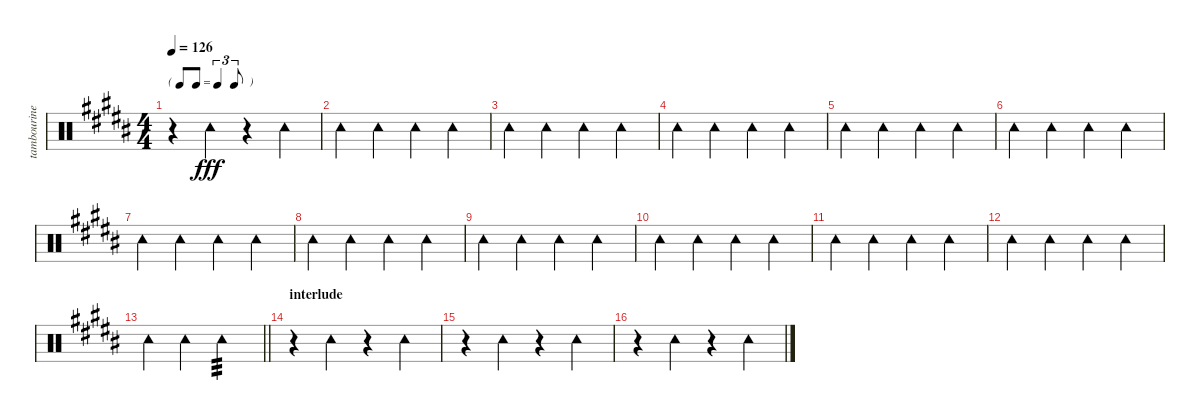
\track ("tambourine" "tambourine") {instrument percussion}
\staff {score}
\articulation defaults
\ts (4 4)
\tf triplet8th
\tempo 126
\clef neutral
\ks b
r.4{dy fff} "Tambourine (hit)".4 r.4 "Tambourine (hit)".4 |
"Tambourine (hit)".4 "Tambourine (hit)".4 "Tambourine (hit)".4 "Tambourine (hit)".4 |
"Tambourine (hit)".4 "Tambourine (hit)".4 "Tambourine (hit)".4 "Tambourine (hit)".4 |
"Tambourine (hit)".4 "Tambourine (hit)".4 "Tambourine (hit)".4 "Tambourine (hit)".4 |
"Tambourine (hit)".4 "Tambourine (hit)".4 "Tambourine (hit)".4 "Tambourine (hit)".4 |
"Tambourine (hit)".4 "Tambourine (hit)".4 "Tambourine (hit)".4 "Tambourine (hit)".4 |
"Tambourine (hit)".4 "Tambourine (hit)".4 "Tambourine (hit)".4 "Tambourine (hit)".4 |
"Tambourine (hit)".4 "Tambourine (hit)".4 "Tambourine (hit)".4 "Tambourine (hit)".4 |
"Tambourine (hit)".4 "Tambourine (hit)".4 "Tambourine (hit)".4 "Tambourine (hit)".4 |
"Tambourine (hit)".4 "Tambourine (hit)".4 "Tambourine (hit)".4 "Tambourine (hit)".4 |
"Tambourine (hit)".4 "Tambourine (hit)".4 "Tambourine (hit)".4 "Tambourine (hit)".4 |
"Tambourine (hit)".4 "Tambourine (hit)".4 "Tambourine (hit)".4 "Tambourine (hit)".4 |
\barLineRight lightlight "Tambourine (hit)".4 "Tambourine (hit)".4 "Tambourine (hit)".2{tp 3}
|
\section ("" "interlude")
r.4 "Tambourine (hit)".4 r.4 "Tambourine (hit)".4 |
r.4 "Tambourine (hit)".4 r.4 "Tambourine (hit)".4 |
r.4 "Tambourine (hit)".4 r.4 "Tambourine (hit)".4
